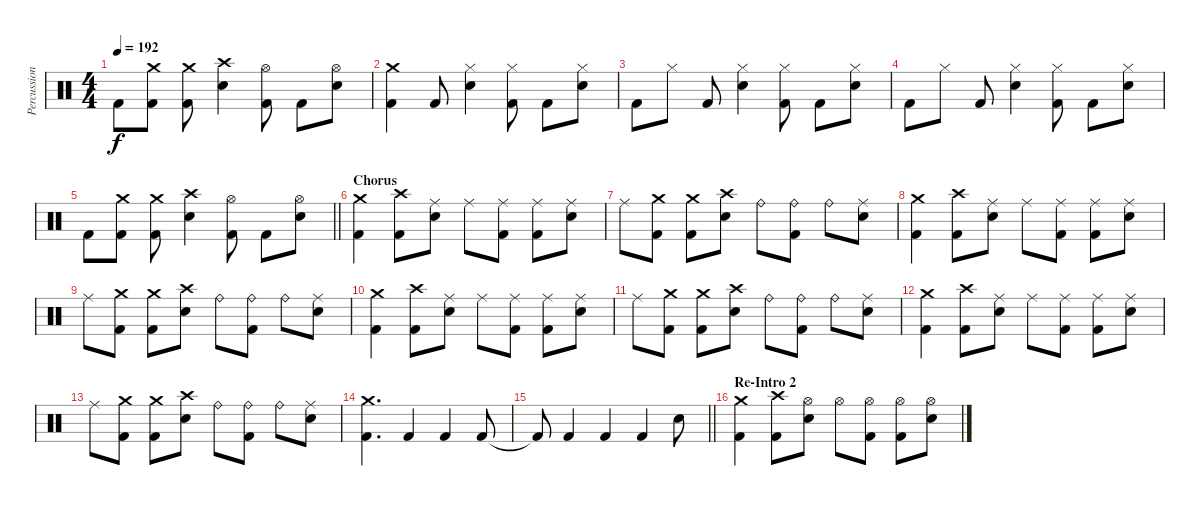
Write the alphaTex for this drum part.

\track ("Percussion" "Percussion") {instrument percussion}
\staff {score}
\articulation defaults
\ts (4 4)
\tempo 192
\clef neutral
\ks c "Kick (hit) 2".8{dy f}
("Crash medium (hit)" "Kick (hit) 2").8 ("Crash medium (hit)" "Kick (hit) 2").8 ("Crash high (hit)" "Electric Snare (hit)").4 ("Hi-Hat (open)" "Kick (hit) 2").8 "Kick (hit) 2".8 ("Hi-Hat (open)" "Electric Snare (hit)").8 |
("Crash medium (hit)" "Kick (hit) 2").4 "Kick (hit) 2".8 ("Hi-Hat (closed)" "Electric Snare (hit)").4 ("Hi-Hat (closed)" "Kick (hit) 2").8 "Kick (hit) 2".8 ("Hi-Hat (closed)" "Electric Snare (hit)").8 |
"Kick (hit) 2".8 "Hi-Hat (closed)".8 "Kick (hit) 2".8 ("Hi-Hat (closed)" "Electric Snare (hit)").4 ("Hi-Hat (closed)" "Kick (hit) 2").8 "Kick (hit) 2".8 ("Hi-Hat (closed)" "Electric Snare (hit)").8 |
"Kick (hit) 2".8 "Hi-Hat (closed)".8 "Kick (hit) 2".8 ("Hi-Hat (closed)" "Electric Snare (hit)").4 ("Hi-Hat (closed)" "Kick (hit) 2").8 "Kick (hit) 2".8 ("Hi-Hat (closed)" "Electric Snare (hit)").8 |
\barLineRight lightlight "Kick (hit) 2".8
("Crash medium (hit)" "Kick (hit) 2").8 ("Crash medium (hit)" "Kick (hit) 2").8 ("Crash high (hit)" "Electric Snare (hit)").4 ("Hi-Hat (open)" "Kick (hit) 2").8 "Kick (hit) 2".8 ("Hi-Hat (open)" "Electric Snare (hit)").8 |
\section ("" "Chorus")
("Crash medium (hit)" "Kick (hit) 2").4 ("Crash high (hit)" "Kick (hit) 2").8 ("Ride (middle)" "Electric Snare (hit)").8 "Ride (middle)".8 ("Ride (middle)" "Kick (hit) 2").8 ("Ride (middle)" "Kick (hit) 2").8 ("Ride (middle)" "Electric Snare (hit)").8 |
"Ride (middle)".8 ("Crash medium (hit)" "Kick (hit) 2").8 ("Crash medium (hit)" "Kick (hit) 2").8 ("Crash high (hit)" "Electric Snare (hit)").8 "Ride (bell)".8 ("Ride (bell)" "Kick (hit) 2").8 "Ride (bell)".8 ("Ride (middle)" "Electric Snare (hit)").8 |
("Crash medium (hit)" "Kick (hit) 2").4 ("Crash high (hit)" "Kick (hit) 2").8 ("Ride (middle)" "Electric Snare (hit)").8 "Ride (middle)".8 ("Ride (middle)" "Kick (hit) 2").8 ("Ride (middle)" "Kick (hit) 2").8 ("Ride (middle)" "Electric Snare (hit)").8 |
"Ride (middle)".8 ("Crash medium (hit)" "Kick (hit) 2").8 ("Crash medium (hit)" "Kick (hit) 2").8 ("Crash high (hit)" "Electric Snare (hit)").8 "Ride (bell)".8 ("Ride (bell)" "Kick (hit) 2").8 "Ride (bell)".8 ("Ride (middle)" "Electric Snare (hit)").8 |
("Crash medium (hit)" "Kick (hit) 2").4 ("Crash high (hit)" "Kick (hit) 2").8 ("Ride (middle)" "Electric Snare (hit)").8 "Ride (middle)".8 ("Ride (middle)" "Kick (hit) 2").8 ("Ride (middle)" "Kick (hit) 2").8 ("Ride (middle)" "Electric Snare (hit)").8 |
"Ride (middle)".8 ("Crash medium (hit)" "Kick (hit) 2").8 ("Crash medium (hit)" "Kick (hit) 2").8 ("Crash high (hit)" "Electric Snare (hit)").8 "Ride (bell)".8 ("Ride (bell)" "Kick (hit) 2").8 "Ride (bell)".8 ("Ride (middle)" "Electric Snare (hit)").8 |
("Crash medium (hit)" "Kick (hit) 2").4 ("Crash high (hit)" "Kick (hit) 2").8 ("Ride (middle)" "Electric Snare (hit)").8 "Ride (middle)".8 ("Ride (middle)" "Kick (hit) 2").8 ("Ride (middle)" "Kick (hit) 2").8 ("Ride (middle)" "Electric Snare (hit)").8 |
"Ride (middle)".8 ("Crash medium (hit)" "Kick (hit) 2").8 ("Crash medium (hit)" "Kick (hit) 2").8 ("Crash high (hit)" "Electric Snare (hit)").8 "Ride (bell)".8 ("Ride (bell)" "Kick (hit) 2").8 "Ride (bell)".8 ("Ride (middle)" "Electric Snare (hit)").8 |
("Crash medium (hit)" "Kick (hit) 2").4{d} "Kick (hit) 2".4 "Kick (hit) 2".4 "Kick (hit) 2".8 |
\barLineRight lightlight "Kick (hit) 2"{t}.8 "Kick (hit) 2".4 "Kick (hit) 2".4 "Kick (hit) 2".4 "Electric Snare (hit)".8
|
\section ("" "Re-Intro 2")
("Crash medium (hit)" "Kick (hit) 2").4 ("Crash high (hit)" "Kick (hit) 2").8 ("Hi-Hat (open)" "Electric Snare (hit)").8 "Hi-Hat (open)".8 ("Hi-Hat (open)" "Kick (hit) 2").8 ("Hi-Hat (open)" "Kick (hit) 2").8 ("Hi-Hat (open)" "Electric Snare (hit)").8
